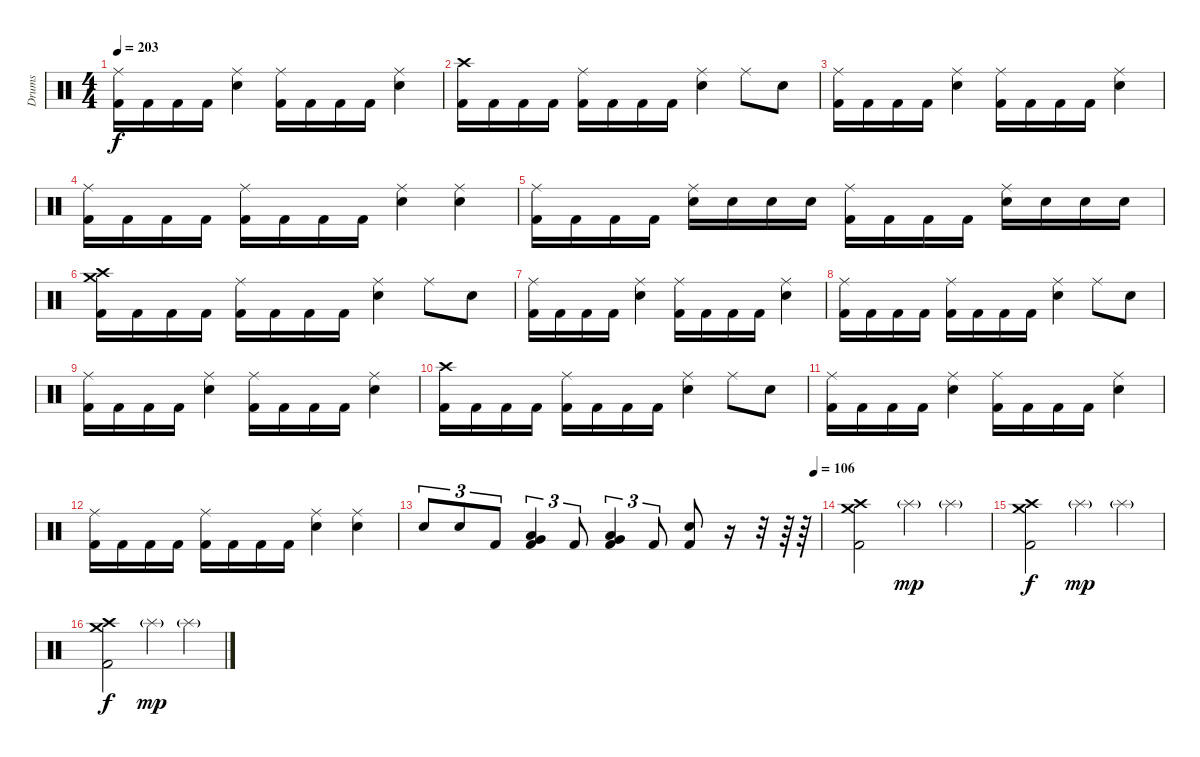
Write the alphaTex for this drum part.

\track ("Drums" "Drums") {instrument percussion}
\staff {score}
\articulation defaults
\ts (4 4)
\tempo 203
\clef neutral
\ks c
("Ride (middle)" "Kick (hit) 2").16{dy f} "Kick (hit) 2".16 "Kick (hit) 2".16 "Kick (hit) 2".16 ("Ride (middle)" "Electric Snare (hit)").4 ("Ride (middle)" "Kick (hit) 2").16 "Kick (hit) 2".16 "Kick (hit) 2".16 "Kick (hit) 2".16 ("Ride (middle)" "Electric Snare (hit)").4 |
("Crash high (hit)" "Kick (hit) 2").16 "Kick (hit) 2".16 "Kick (hit) 2".16 "Kick (hit) 2".16 ("Ride (middle)" "Kick (hit) 2").16 "Kick (hit) 2".16 "Kick (hit) 2".16 "Kick (hit) 2".16 ("Ride (middle)" "Electric Snare (hit)").4 "Ride (middle)".8 "Electric Snare (hit)".8 |
("Ride (middle)" "Kick (hit) 2").16 "Kick (hit) 2".16 "Kick (hit) 2".16 "Kick (hit) 2".16 ("Ride (middle)" "Electric Snare (hit)").4 ("Ride (middle)" "Kick (hit) 2").16 "Kick (hit) 2".16 "Kick (hit) 2".16 "Kick (hit) 2".16 ("Ride (middle)" "Electric Snare (hit)").4 |
("Ride (middle)" "Kick (hit) 2").16 "Kick (hit) 2".16 "Kick (hit) 2".16 "Kick (hit) 2".16 ("Ride (middle)" "Kick (hit) 2").16 "Kick (hit) 2".16 "Kick (hit) 2".16 "Kick (hit) 2".16 ("Ride (middle)" "Electric Snare (hit)").4 ("Ride (middle)" "Electric Snare (hit)").4 |
("Ride (middle)" "Kick (hit) 2").16 "Kick (hit) 2".16 "Kick (hit) 2".16 "Kick (hit) 2".16 ("Ride (middle)" "Electric Snare (hit)").16 "Electric Snare (hit)".16 "Electric Snare (hit)".16 "Electric Snare (hit)".16 ("Ride (middle)" "Kick (hit) 2").16 "Kick (hit) 2".16 "Kick (hit) 2".16 "Kick (hit) 2".16 ("Ride (middle)" "Electric Snare (hit)").16 "Electric Snare (hit)".16 "Electric Snare (hit)".16 "Electric Snare (hit)".16 |
("Crash medium (hit)" "Crash high (hit)" "Kick (hit) 2").16 "Kick (hit) 2".16 "Kick (hit) 2".16 "Kick (hit) 2".16 ("Ride (middle)" "Kick (hit) 2").16 "Kick (hit) 2".16 "Kick (hit) 2".16 "Kick (hit) 2".16 ("Ride (middle)" "Electric Snare (hit)").4 "Ride (middle)".8 "Electric Snare (hit)".8 |
("Ride (middle)" "Kick (hit) 2").16 "Kick (hit) 2".16 "Kick (hit) 2".16 "Kick (hit) 2".16 ("Ride (middle)" "Electric Snare (hit)").4 ("Ride (middle)" "Kick (hit) 2").16 "Kick (hit) 2".16 "Kick (hit) 2".16 "Kick (hit) 2".16 ("Ride (middle)" "Electric Snare (hit)").4 |
("Ride (middle)" "Kick (hit) 2").16 "Kick (hit) 2".16 "Kick (hit) 2".16 "Kick (hit) 2".16 ("Ride (middle)" "Kick (hit) 2").16 "Kick (hit) 2".16 "Kick (hit) 2".16 "Kick (hit) 2".16 ("Ride (middle)" "Electric Snare (hit)").4 "Ride (middle)".8 "Electric Snare (hit)".8 |
("Ride (middle)" "Kick (hit) 2").16 "Kick (hit) 2".16 "Kick (hit) 2".16 "Kick (hit) 2".16 ("Ride (middle)" "Electric Snare (hit)").4 ("Ride (middle)" "Kick (hit) 2").16 "Kick (hit) 2".16 "Kick (hit) 2".16 "Kick (hit) 2".16 ("Ride (middle)" "Electric Snare (hit)").4 |
("Crash high (hit)" "Kick (hit) 2").16 "Kick (hit) 2".16 "Kick (hit) 2".16 "Kick (hit) 2".16 ("Ride (middle)" "Kick (hit) 2").16 "Kick (hit) 2".16 "Kick (hit) 2".16 "Kick (hit) 2".16 ("Ride (middle)" "Electric Snare (hit)").4 "Ride (middle)".8 "Electric Snare (hit)".8 |
("Ride (middle)" "Kick (hit) 2").16 "Kick (hit) 2".16 "Kick (hit) 2".16 "Kick (hit) 2".16 ("Ride (middle)" "Electric Snare (hit)").4 ("Ride (middle)" "Kick (hit) 2").16 "Kick (hit) 2".16 "Kick (hit) 2".16 "Kick (hit) 2".16 ("Ride (middle)" "Electric Snare (hit)").4 |
("Ride (middle)" "Kick (hit) 2").16 "Kick (hit) 2".16 "Kick (hit) 2".16 "Kick (hit) 2".16 ("Ride (middle)" "Kick (hit) 2").16 "Kick (hit) 2".16 "Kick (hit) 2".16 "Kick (hit) 2".16 ("Ride (middle)" "Electric Snare (hit)").4 ("Ride (middle)" "Electric Snare (hit)").4 |
\tempo (106 0.984375)
"Electric Snare (hit)".8{tu (3 2)} "Electric Snare (hit)".8{tu (3 2)} "Kick (hit) 2".8{tu (3 2)} ("Very Low Tom (hit)" "Low Floor Tom (hit)" "Kick (hit) 2").4{tu (3 2)} "Kick (hit) 2".8{tu (3 2)} ("Very Low Tom (hit)" "Low Floor Tom (hit)" "Kick (hit) 2").4{tu (3 2)} "Kick (hit) 2".8{tu (3 2)} ("Electric Snare (hit)" "Kick (hit) 2").8 r.16 r.32 r.64 r.64 |
("Crash medium (hit)" "Crash high (hit)" "Kick (hit) 2").2 "Splash (hit)"{g}.4{dy mp} "Splash (hit)"{g}.4 |
("Crash medium (hit)" "Crash high (hit)" "Kick (hit) 2").2{dy f} "Splash (hit)"{g}.4{dy mp} "Splash (hit)"{g}.4 |
("Crash medium (hit)" "Crash high (hit)" "Kick (hit) 2").2{dy f} "Splash (hit)"{g}.4{dy mp} "Splash (hit)"{g}.4
